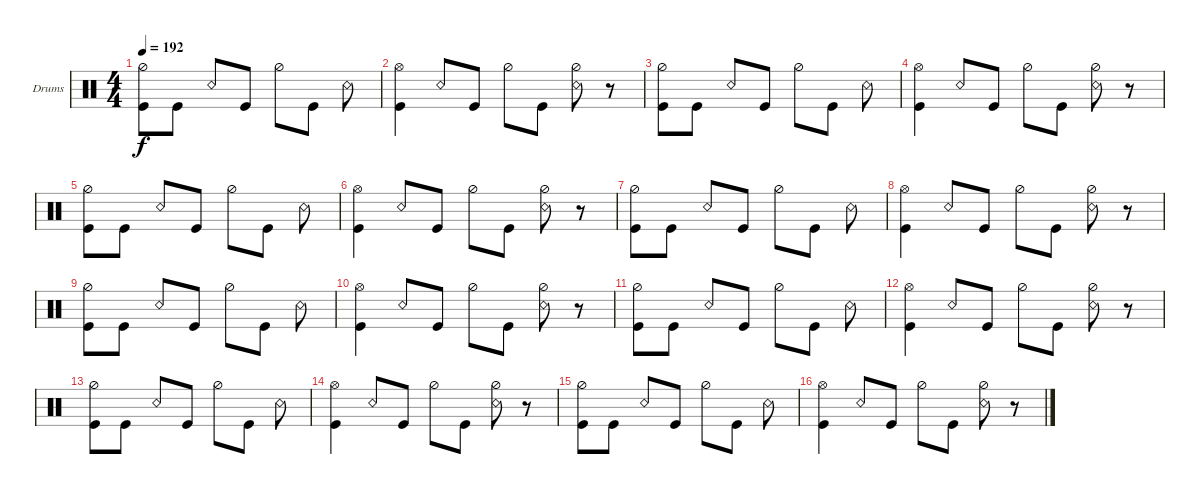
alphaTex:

\defaultSystemsLayout 4
\bracketExtendMode groupsimilarinstruments
\firstSystemTrackNameOrientation horizontal
\otherSystemsTrackNameOrientation horizontal
\track ("Drumkit" "Drums") {instrument percussion}
\staff {score}
\articulation defaults
\ts (4 4)
\tempo 192
\clef neutral
\scale
0.472222
\ks c
("Kick (hit)" "Hi-Hat (half)").8{dy f} "Kick (hit)".8 "Snare (rim shot)".8 "Kick (hit)".8 "Hi-Hat (half)".8 "Kick (hit)".8 "Snare (rim shot)".8 |
\scale
0.263889 ("Kick (hit)" "Hi-Hat (open)").4 "Snare (rim shot)".8 "Kick (hit)".8 "Hi-Hat (half)".8 "Kick (hit)".8 ("Snare (rim shot)" "Hi-Hat (half)").8 r.8 |
\scale
0.263889 ("Kick (hit)" "Hi-Hat (half)").8 "Kick (hit)".8 "Snare (rim shot)".8 "Kick (hit)".8 "Hi-Hat (half)".8 "Kick (hit)".8 "Snare (rim shot)".8 |
\scale
0.333333 ("Kick (hit)" "Hi-Hat (open)").4 "Snare (rim shot)".8 "Kick (hit)".8 "Hi-Hat (half)".8 "Kick (hit)".8 ("Snare (rim shot)" "Hi-Hat (half)").8 r.8 |
\scale
0.333333 ("Kick (hit)" "Hi-Hat (half)").8 "Kick (hit)".8 "Snare (rim shot)".8 "Kick (hit)".8 "Hi-Hat (half)".8 "Kick (hit)".8 "Snare (rim shot)".8 |
\scale
0.333333 ("Kick (hit)" "Hi-Hat (open)").4 "Snare (rim shot)".8 "Kick (hit)".8 "Hi-Hat (half)".8 "Kick (hit)".8 ("Snare (rim shot)" "Hi-Hat (half)").8 r.8 |
\scale
0.333333 ("Kick (hit)" "Hi-Hat (half)").8 "Kick (hit)".8 "Snare (rim shot)".8 "Kick (hit)".8 "Hi-Hat (half)".8 "Kick (hit)".8 "Snare (rim shot)".8 |
\scale
0.333333 ("Kick (hit)" "Hi-Hat (open)").4 "Snare (rim shot)".8 "Kick (hit)".8 "Hi-Hat (half)".8 "Kick (hit)".8 ("Snare (rim shot)" "Hi-Hat (half)").8 r.8 |
\scale
0.333333 ("Kick (hit)" "Hi-Hat (half)").8 "Kick (hit)".8 "Snare (rim shot)".8 "Kick (hit)".8 "Hi-Hat (half)".8 "Kick (hit)".8 "Snare (rim shot)".8 |
\scale
0.333333 ("Kick (hit)" "Hi-Hat (open)").4 "Snare (rim shot)".8 "Kick (hit)".8 "Hi-Hat (half)".8 "Kick (hit)".8 ("Snare (rim shot)" "Hi-Hat (half)").8 r.8 |
\scale
0.333333 ("Kick (hit)" "Hi-Hat (half)").8 "Kick (hit)".8 "Snare (rim shot)".8 "Kick (hit)".8 "Hi-Hat (half)".8 "Kick (hit)".8 "Snare (rim shot)".8 |
\scale
0.333333 ("Kick (hit)" "Hi-Hat (open)").4 "Snare (rim shot)".8 "Kick (hit)".8 "Hi-Hat (half)".8 "Kick (hit)".8 ("Snare (rim shot)" "Hi-Hat (half)").8 r.8 |
\scale
0.333333 ("Kick (hit)" "Hi-Hat (half)").8 "Kick (hit)".8 "Snare (rim shot)".8 "Kick (hit)".8 "Hi-Hat (half)".8 "Kick (hit)".8 "Snare (rim shot)".8 |
\scale
0.333333 ("Kick (hit)" "Hi-Hat (open)").4 "Snare (rim shot)".8 "Kick (hit)".8 "Hi-Hat (half)".8 "Kick (hit)".8 ("Snare (rim shot)" "Hi-Hat (half)").8 r.8 |
\scale
0.333333 ("Kick (hit)" "Hi-Hat (half)").8 "Kick (hit)".8 "Snare (rim shot)".8 "Kick (hit)".8 "Hi-Hat (half)".8 "Kick (hit)".8 "Snare (rim shot)".8 |
\scale
0.333333 ("Kick (hit)" "Hi-Hat (open)").4 "Snare (rim shot)".8 "Kick (hit)".8 "Hi-Hat (half)".8 "Kick (hit)".8 ("Snare (rim shot)" "Hi-Hat (half)").8 r.8
